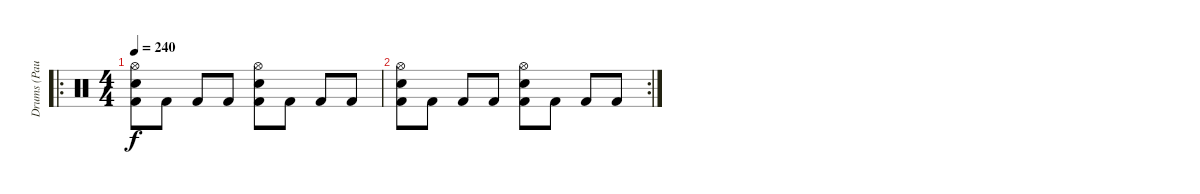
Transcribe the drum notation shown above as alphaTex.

\track ("Drums (Paul)" "Drums (Pau") {instrument percussion}
\staff {score}
\articulation defaults
\ro
\ts (4 4)
\tempo 240
\clef neutral
\ks c
("Hi-Hat (open)" "Snare (hit) 2" "Kick (hit) 2").8{dy f} "Kick (hit) 2".8 "Kick (hit) 2".8 "Kick (hit) 2".8 ("Hi-Hat (open)" "Snare (hit) 2" "Kick (hit) 2").8 "Kick (hit) 2".8 "Kick (hit) 2".8 "Kick (hit) 2".8 |
\rc 2
("Hi-Hat (open)" "Snare (hit) 2" "Kick (hit) 2").8 "Kick (hit) 2".8 "Kick (hit) 2".8 "Kick (hit) 2".8 ("Hi-Hat (open)" "Snare (hit) 2" "Kick (hit) 2").8 "Kick (hit) 2".8 "Kick (hit) 2".8 "Kick (hit) 2".8
